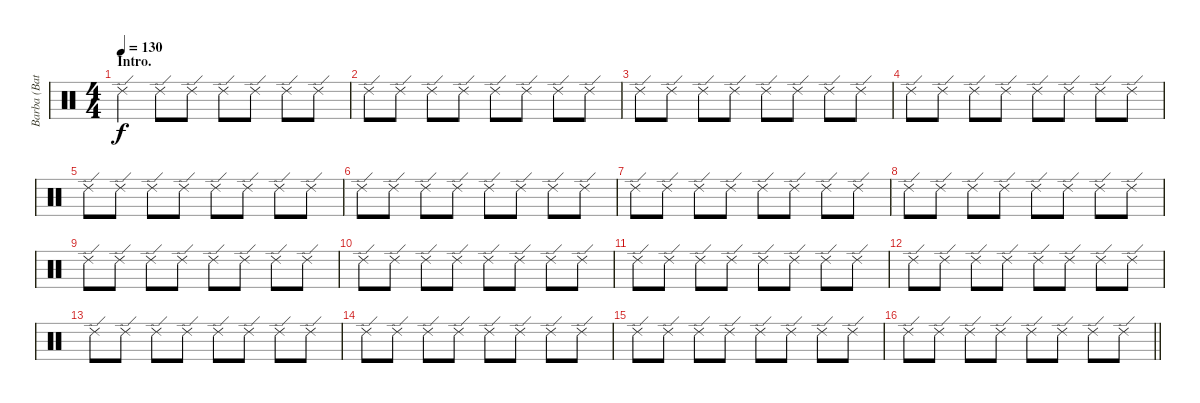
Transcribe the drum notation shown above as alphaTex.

\track ("Barba (Bateria)" "Barba (Bat") {instrument percussion}
\staff {score}
\articulation defaults
\ts (4 4)
\section ("" "Intro.")
\tempo 130
\clef neutral
\ks c "Ride (edge) 2".4{dy f} "Ride (edge) 2".8 "Ride (edge) 2".8 "Ride (edge) 2".8 "Ride (edge) 2".8 "Ride (edge) 2".8 "Ride (edge) 2".8
|
"Ride (edge) 2".8 "Ride (edge) 2".8 "Ride (edge) 2".8 "Ride (edge) 2".8 "Ride (edge) 2".8 "Ride (edge) 2".8 "Ride (edge) 2".8 "Ride (edge) 2".8 |
"Ride (edge) 2".8 "Ride (edge) 2".8 "Ride (edge) 2".8 "Ride (edge) 2".8 "Ride (edge) 2".8 "Ride (edge) 2".8 "Ride (edge) 2".8 "Ride (edge) 2".8 |
"Ride (edge) 2".8 "Ride (edge) 2".8 "Ride (edge) 2".8 "Ride (edge) 2".8 "Ride (edge) 2".8 "Ride (edge) 2".8 "Ride (edge) 2".8 "Ride (edge) 2".8 |
"Ride (edge) 2".8 "Ride (edge) 2".8 "Ride (edge) 2".8 "Ride (edge) 2".8 "Ride (edge) 2".8 "Ride (edge) 2".8 "Ride (edge) 2".8 "Ride (edge) 2".8 |
"Ride (edge) 2".8 "Ride (edge) 2".8 "Ride (edge) 2".8 "Ride (edge) 2".8 "Ride (edge) 2".8 "Ride (edge) 2".8 "Ride (edge) 2".8 "Ride (edge) 2".8 |
"Ride (edge) 2".8 "Ride (edge) 2".8 "Ride (edge) 2".8 "Ride (edge) 2".8 "Ride (edge) 2".8 "Ride (edge) 2".8 "Ride (edge) 2".8 "Ride (edge) 2".8 |
"Ride (edge) 2".8 "Ride (edge) 2".8 "Ride (edge) 2".8 "Ride (edge) 2".8 "Ride (edge) 2".8 "Ride (edge) 2".8 "Ride (edge) 2".8 "Ride (edge) 2".8 |
"Ride (edge) 2".8 "Ride (edge) 2".8 "Ride (edge) 2".8 "Ride (edge) 2".8 "Ride (edge) 2".8 "Ride (edge) 2".8 "Ride (edge) 2".8 "Ride (edge) 2".8 |
"Ride (edge) 2".8 "Ride (edge) 2".8 "Ride (edge) 2".8 "Ride (edge) 2".8 "Ride (edge) 2".8 "Ride (edge) 2".8 "Ride (edge) 2".8 "Ride (edge) 2".8 |
"Ride (edge) 2".8 "Ride (edge) 2".8 "Ride (edge) 2".8 "Ride (edge) 2".8 "Ride (edge) 2".8 "Ride (edge) 2".8 "Ride (edge) 2".8 "Ride (edge) 2".8 |
"Ride (edge) 2".8 "Ride (edge) 2".8 "Ride (edge) 2".8 "Ride (edge) 2".8 "Ride (edge) 2".8 "Ride (edge) 2".8 "Ride (edge) 2".8 "Ride (edge) 2".8 |
"Ride (edge) 2".8 "Ride (edge) 2".8 "Ride (edge) 2".8 "Ride (edge) 2".8 "Ride (edge) 2".8 "Ride (edge) 2".8 "Ride (edge) 2".8 "Ride (edge) 2".8 |
"Ride (edge) 2".8 "Ride (edge) 2".8 "Ride (edge) 2".8 "Ride (edge) 2".8 "Ride (edge) 2".8 "Ride (edge) 2".8 "Ride (edge) 2".8 "Ride (edge) 2".8 |
"Ride (edge) 2".8 "Ride (edge) 2".8 "Ride (edge) 2".8 "Ride (edge) 2".8 "Ride (edge) 2".8 "Ride (edge) 2".8 "Ride (edge) 2".8 "Ride (edge) 2".8 |
\barLineRight lightlight "Ride (edge) 2".8 "Ride (edge) 2".8 "Ride (edge) 2".8 "Ride (edge) 2".8 "Ride (edge) 2".8 "Ride (edge) 2".8 "Ride (edge) 2".8 "Ride (edge) 2".8
